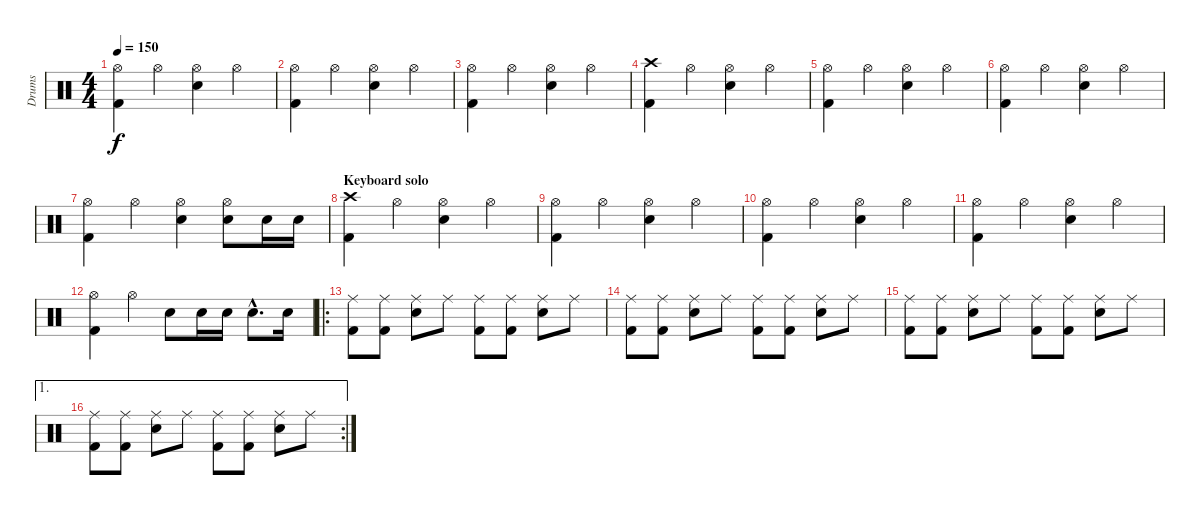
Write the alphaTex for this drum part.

\track ("Drums" "Drums") {instrument percussion}
\staff {score}
\articulation defaults
\ts (4 4)
\tempo 150
\clef neutral
\ks c
("Hi-Hat (open)" "Kick (hit) 2").4{dy f} "Hi-Hat (open)".4 ("Hi-Hat (open)" "Electric Snare (hit)").4 "Hi-Hat (open)".4 |
("Hi-Hat (open)" "Kick (hit) 2").4 "Hi-Hat (open)".4 ("Hi-Hat (open)" "Electric Snare (hit)").4 "Hi-Hat (open)".4 |
("Hi-Hat (open)" "Kick (hit) 2").4 "Hi-Hat (open)".4 ("Hi-Hat (open)" "Electric Snare (hit)").4 "Hi-Hat (open)".4 |
("Crash high (hit)" "Kick (hit) 2").4 "Hi-Hat (open)".4 ("Hi-Hat (open)" "Electric Snare (hit)").4 "Hi-Hat (open)".4 |
("Hi-Hat (open)" "Kick (hit) 2").4 "Hi-Hat (open)".4 ("Hi-Hat (open)" "Electric Snare (hit)").4 "Hi-Hat (open)".4 |
("Hi-Hat (open)" "Kick (hit) 2").4 "Hi-Hat (open)".4 ("Hi-Hat (open)" "Electric Snare (hit)").4 "Hi-Hat (open)".4 |
("Hi-Hat (open)" "Kick (hit) 2").4 "Hi-Hat (open)".4 ("Hi-Hat (open)" "Electric Snare (hit)").4 ("Hi-Hat (open)" "Electric Snare (hit)").8 "Electric Snare (hit)".16 "Electric Snare (hit)".16 |
\section ("" "Keyboard solo")
("Crash high (hit)" "Kick (hit) 2").4 "Hi-Hat (open)".4 ("Hi-Hat (open)" "Electric Snare (hit)").4 "Hi-Hat (open)".4 |
("Hi-Hat (open)" "Kick (hit) 2").4 "Hi-Hat (open)".4 ("Hi-Hat (open)" "Electric Snare (hit)").4 "Hi-Hat (open)".4 |
("Hi-Hat (open)" "Kick (hit) 2").4 "Hi-Hat (open)".4 ("Hi-Hat (open)" "Electric Snare (hit)").4 "Hi-Hat (open)".4 |
("Hi-Hat (open)" "Kick (hit) 2").4 "Hi-Hat (open)".4 ("Hi-Hat (open)" "Electric Snare (hit)").4 "Hi-Hat (open)".4 |
("Hi-Hat (open)" "Kick (hit) 2").4 "Hi-Hat (open)".4 "Electric Snare (hit)".8 "Electric Snare (hit)".16 "Electric Snare (hit)".16 "Electric Snare (hit)"{hac}.8{d} "Electric Snare (hit)".16 |
\ro
("Ride (middle)" "Kick (hit) 2").8 ("Ride (middle)" "Kick (hit) 2").8 ("Ride (middle)" "Electric Snare (hit)").8 "Ride (middle)".8 ("Ride (middle)" "Kick (hit) 2").8 ("Ride (middle)" "Kick (hit) 2").8 ("Ride (middle)" "Electric Snare (hit)").8 "Ride (middle)".8 |
("Ride (middle)" "Kick (hit) 2").8 ("Ride (middle)" "Kick (hit) 2").8 ("Ride (middle)" "Electric Snare (hit)").8 "Ride (middle)".8 ("Ride (middle)" "Kick (hit) 2").8 ("Ride (middle)" "Kick (hit) 2").8 ("Ride (middle)" "Electric Snare (hit)").8 "Ride (middle)".8 |
("Ride (middle)" "Kick (hit) 2").8 ("Ride (middle)" "Kick (hit) 2").8 ("Ride (middle)" "Electric Snare (hit)").8 "Ride (middle)".8 ("Ride (middle)" "Kick (hit) 2").8 ("Ride (middle)" "Kick (hit) 2").8 ("Ride (middle)" "Electric Snare (hit)").8 "Ride (middle)".8 |
\ae 1
\rc 2
("Ride (middle)" "Kick (hit) 2").8 ("Ride (middle)" "Kick (hit) 2").8 ("Ride (middle)" "Electric Snare (hit)").8 "Ride (middle)".8 ("Ride (middle)" "Kick (hit) 2").8 ("Ride (middle)" "Kick (hit) 2").8 ("Ride (middle)" "Electric Snare (hit)").8 "Ride (middle)".8
